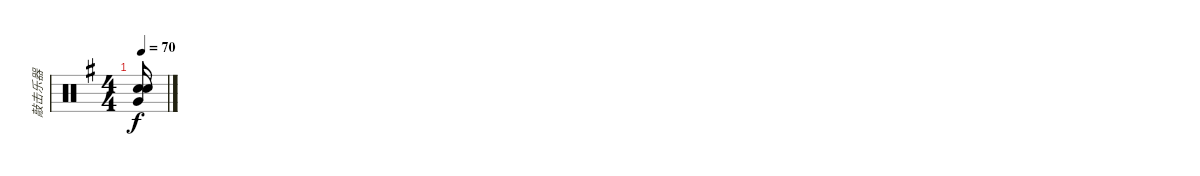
\track ("敲击乐器" "敲击乐器") {instrument percussion}
\staff {score}
\articulation defaults
\ts (4 4)
\tempo 70
\clef neutral
\ks g
("Snare (hit) 2" "Very Low Tom (hit)" "Snare (hit) 2").16{dy f}
